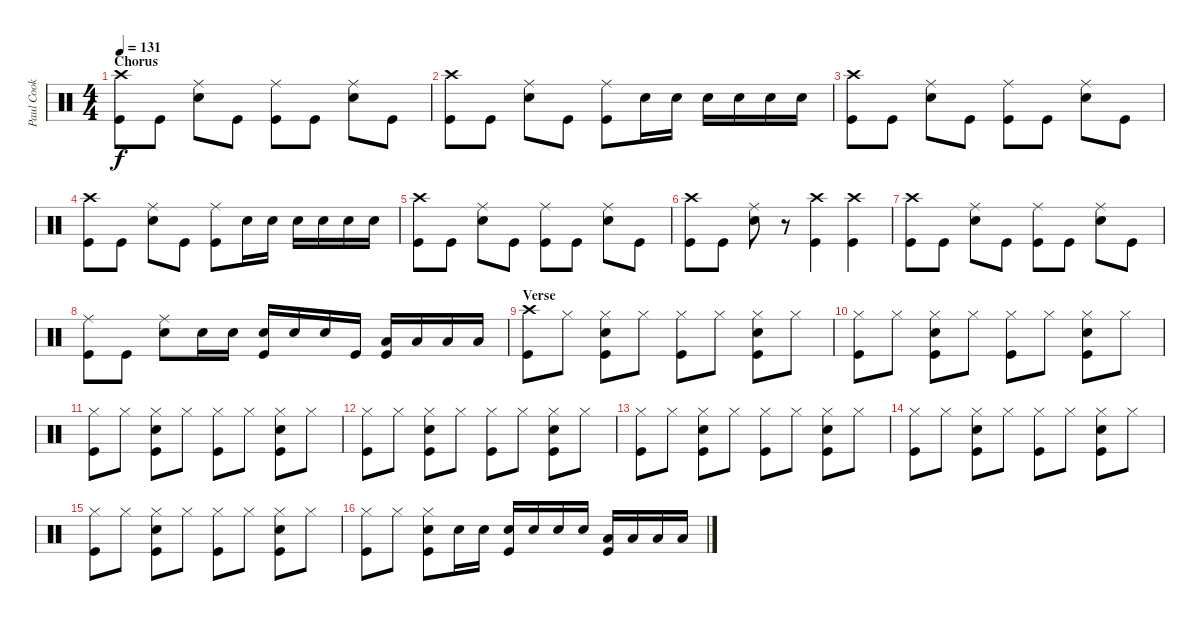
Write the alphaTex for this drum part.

\track ("Paul Cook" "Paul Cook") {instrument percussion}
\staff {score}
\articulation defaults
\ts (4 4)
\section ("" "Chorus")
\tempo 131
\clef neutral
\ks c
("Crash high (hit)" "Kick (hit)").8{dy f} "Kick (hit)".8 ("Ride (middle)" "Snare (hit) 2").8 "Kick (hit)".8 ("Ride (middle)" "Kick (hit)").8 "Kick (hit)".8 ("Ride (middle)" "Snare (hit) 2").8 "Kick (hit)".8 |
("Crash high (hit)" "Kick (hit)").8 "Kick (hit)".8 ("Ride (middle)" "Snare (hit) 2").8 "Kick (hit)".8 ("Ride (middle)" "Kick (hit)").8 "Snare (hit) 2".16 "Snare (hit) 2".16 "Snare (hit) 2".16 "Snare (hit) 2".16 "Snare (hit) 2".16 "Snare (hit) 2".16 |
("Crash high (hit)" "Kick (hit)").8 "Kick (hit)".8 ("Ride (middle)" "Snare (hit) 2").8 "Kick (hit)".8 ("Ride (middle)" "Kick (hit)").8 "Kick (hit)".8 ("Ride (middle)" "Snare (hit) 2").8 "Kick (hit)".8 |
("Crash high (hit)" "Kick (hit)").8 "Kick (hit)".8 ("Ride (middle)" "Snare (hit) 2").8 "Kick (hit)".8 ("Ride (middle)" "Kick (hit)").8 "Snare (hit) 2".16 "Snare (hit) 2".16 "Snare (hit) 2".16 "Snare (hit) 2".16 "Snare (hit) 2".16 "Snare (hit) 2".16 |
("Crash high (hit)" "Kick (hit)").8 "Kick (hit)".8 ("Ride (middle)" "Snare (hit) 2").8 "Kick (hit)".8 ("Ride (middle)" "Kick (hit)").8 "Kick (hit)".8 ("Ride (middle)" "Snare (hit) 2").8 "Kick (hit)".8 |
("Crash high (hit)" "Kick (hit)").8 "Kick (hit)".8 ("Ride (middle)" "Snare (hit) 2").8 r.8 ("Crash high (hit)" "Kick (hit)").4 ("Crash high (hit)" "Kick (hit)").4 |
("Crash high (hit)" "Kick (hit)").8 "Kick (hit)".8 ("Ride (middle)" "Snare (hit) 2").8 "Kick (hit)".8 ("Ride (middle)" "Kick (hit)").8 "Kick (hit)".8 ("Ride (middle)" "Snare (hit) 2").8 "Kick (hit)".8 |
("Ride (middle)" "Kick (hit)").8 "Kick (hit)".8 ("Ride (middle)" "Snare (hit) 2").8 "Snare (hit) 2".16 "Snare (hit) 2".16 ("Snare (hit) 2" "Kick (hit)").16 "Snare (hit) 2".16 "Snare (hit) 2".16 "Kick (hit)".16 ("Low Tom (hit)" "Kick (hit)").16 "Low Tom (hit)".16 "Low Tom (hit)".16 "Low Tom (hit)".16 |
\section ("" "Verse")
("Crash high (hit)" "Kick (hit)").8 "Hi-Hat (closed)".8 ("Hi-Hat (closed)" "Snare (hit) 2" "Kick (hit)").8 "Hi-Hat (closed)".8 ("Hi-Hat (closed)" "Kick (hit)").8 "Hi-Hat (closed)".8 ("Hi-Hat (closed)" "Snare (hit) 2" "Kick (hit)").8 "Hi-Hat (closed)".8 |
("Hi-Hat (closed)" "Kick (hit)").8 "Hi-Hat (closed)".8 ("Hi-Hat (closed)" "Snare (hit) 2" "Kick (hit)").8 "Hi-Hat (closed)".8 ("Hi-Hat (closed)" "Kick (hit)").8 "Hi-Hat (closed)".8 ("Hi-Hat (closed)" "Snare (hit) 2" "Kick (hit)").8 "Hi-Hat (closed)".8 |
("Hi-Hat (closed)" "Kick (hit)").8 "Hi-Hat (closed)".8 ("Hi-Hat (closed)" "Snare (hit) 2" "Kick (hit)").8 "Hi-Hat (closed)".8 ("Hi-Hat (closed)" "Kick (hit)").8 "Hi-Hat (closed)".8 ("Hi-Hat (closed)" "Snare (hit) 2" "Kick (hit)").8 "Hi-Hat (closed)".8 |
("Hi-Hat (closed)" "Kick (hit)").8 "Hi-Hat (closed)".8 ("Hi-Hat (closed)" "Snare (hit) 2" "Kick (hit)").8 "Hi-Hat (closed)".8 ("Hi-Hat (closed)" "Kick (hit)").8 "Hi-Hat (closed)".8 ("Hi-Hat (closed)" "Snare (hit) 2" "Kick (hit)").8 "Hi-Hat (closed)".8 |
("Hi-Hat (closed)" "Kick (hit)").8 "Hi-Hat (closed)".8 ("Hi-Hat (closed)" "Snare (hit) 2" "Kick (hit)").8 "Hi-Hat (closed)".8 ("Hi-Hat (closed)" "Kick (hit)").8 "Hi-Hat (closed)".8 ("Hi-Hat (closed)" "Snare (hit) 2" "Kick (hit)").8 "Hi-Hat (closed)".8 |
("Hi-Hat (closed)" "Kick (hit)").8 "Hi-Hat (closed)".8 ("Hi-Hat (closed)" "Snare (hit) 2" "Kick (hit)").8 "Hi-Hat (closed)".8 ("Hi-Hat (closed)" "Kick (hit)").8 "Hi-Hat (closed)".8 ("Hi-Hat (closed)" "Snare (hit) 2" "Kick (hit)").8 "Hi-Hat (closed)".8 |
("Hi-Hat (closed)" "Kick (hit)").8 "Hi-Hat (closed)".8 ("Hi-Hat (closed)" "Snare (hit) 2" "Kick (hit)").8 "Hi-Hat (closed)".8 ("Hi-Hat (closed)" "Kick (hit)").8 "Hi-Hat (closed)".8 ("Hi-Hat (closed)" "Snare (hit) 2" "Kick (hit)").8 "Hi-Hat (closed)".8 |
("Hi-Hat (closed)" "Kick (hit)").8 "Hi-Hat (closed)".8 ("Hi-Hat (closed)" "Snare (hit) 2" "Kick (hit)").8 "Snare (hit) 2".16 "Snare (hit) 2".16 ("Snare (hit) 2" "Kick (hit)").16 "Snare (hit) 2".16 "Snare (hit) 2".16 "Snare (hit) 2".16 ("Low Tom (hit)" "Kick (hit)").16 "Low Tom (hit)".16 "Low Tom (hit)".16 "Low Tom (hit)".16
